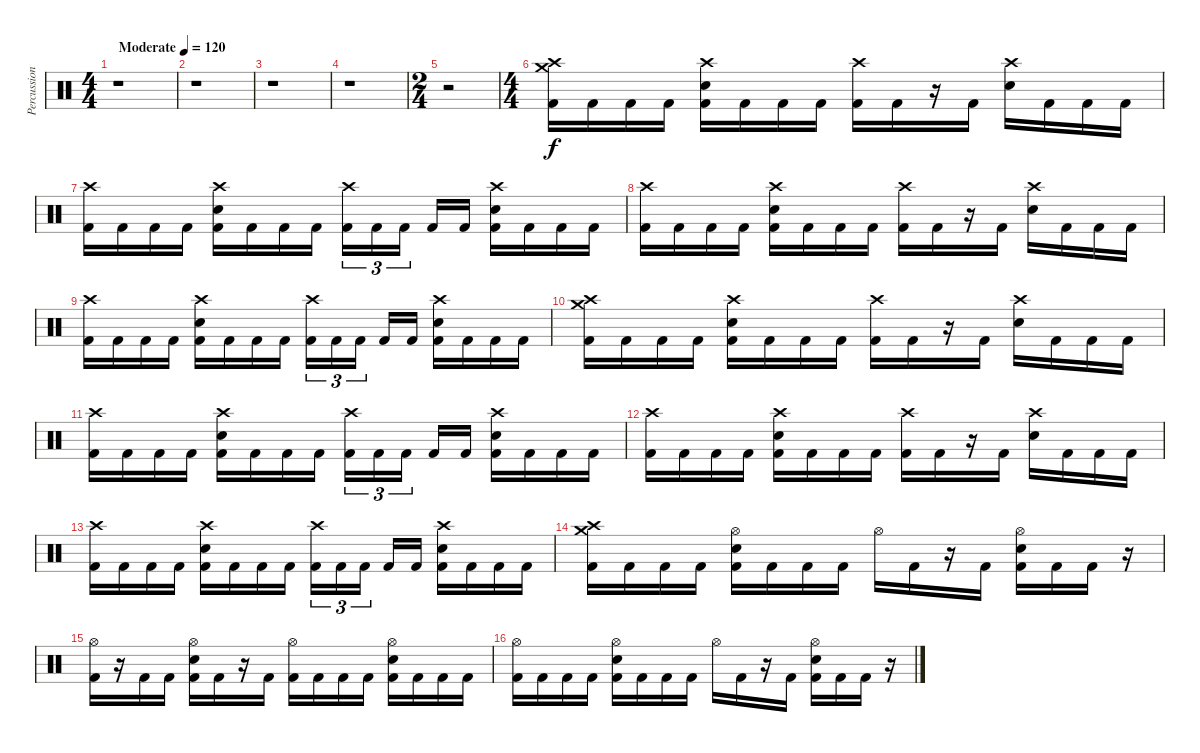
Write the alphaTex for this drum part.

\track ("Percussion" "Percussion") {instrument percussion}
\staff {score}
\articulation defaults
\ts (4 4)
\tempo (120 "Moderate")
\clef neutral
\ks c
r.1{dy f} |
r.1 |
r.1 |
r.1 |
\ts (2 4)
r.2 |
\ts (4 4)
("Crash high (hit)" "Crash medium (hit)" "Kick (hit) 2").16 "Kick (hit) 2".16 "Kick (hit) 2".16 "Kick (hit) 2".16 ("Crash high (hit)" "Electric Snare (hit)" "Kick (hit) 2").16 "Kick (hit) 2".16 "Kick (hit) 2".16 "Kick (hit) 2".16 ("Crash high (hit)" "Kick (hit) 2").16 "Kick (hit) 2".16 r.16 "Kick (hit) 2".16 ("Crash high (hit)" "Electric Snare (hit)").16 "Kick (hit) 2".16 "Kick (hit) 2".16 "Kick (hit) 2".16 |
("Crash high (hit)" "Kick (hit) 2").16 "Kick (hit) 2".16 "Kick (hit) 2".16 "Kick (hit) 2".16 ("Crash high (hit)" "Electric Snare (hit)" "Kick (hit) 2").16 "Kick (hit) 2".16 "Kick (hit) 2".16 "Kick (hit) 2".16 ("Crash high (hit)" "Kick (hit) 2").16{tu (3 2)} "Kick (hit) 2".16{tu (3 2)} "Kick (hit) 2".16{tu (3 2) beam splitsecondary} "Kick (hit) 2".16 "Kick (hit) 2".16 ("Crash high (hit)" "Electric Snare (hit)" "Kick (hit) 2").16 "Kick (hit) 2".16 "Kick (hit) 2".16 "Kick (hit) 2".16 |
("Crash high (hit)" "Kick (hit) 2").16 "Kick (hit) 2".16 "Kick (hit) 2".16 "Kick (hit) 2".16 ("Crash high (hit)" "Electric Snare (hit)" "Kick (hit) 2").16 "Kick (hit) 2".16 "Kick (hit) 2".16 "Kick (hit) 2".16 ("Crash high (hit)" "Kick (hit) 2").16 "Kick (hit) 2".16 r.16 "Kick (hit) 2".16 ("Crash high (hit)" "Electric Snare (hit)").16 "Kick (hit) 2".16 "Kick (hit) 2".16 "Kick (hit) 2".16 |
("Crash high (hit)" "Kick (hit) 2").16 "Kick (hit) 2".16 "Kick (hit) 2".16 "Kick (hit) 2".16 ("Crash high (hit)" "Electric Snare (hit)" "Kick (hit) 2").16 "Kick (hit) 2".16 "Kick (hit) 2".16 "Kick (hit) 2".16 ("Crash high (hit)" "Kick (hit) 2").16{tu (3 2)} "Kick (hit) 2".16{tu (3 2)} "Kick (hit) 2".16{tu (3 2) beam splitsecondary} "Kick (hit) 2".16 "Kick (hit) 2".16 ("Crash high (hit)" "Electric Snare (hit)" "Kick (hit) 2").16 "Kick (hit) 2".16 "Kick (hit) 2".16 "Kick (hit) 2".16 |
("Crash high (hit)" "Crash medium (hit)" "Kick (hit) 2").16 "Kick (hit) 2".16 "Kick (hit) 2".16 "Kick (hit) 2".16 ("Crash high (hit)" "Electric Snare (hit)" "Kick (hit) 2").16 "Kick (hit) 2".16 "Kick (hit) 2".16 "Kick (hit) 2".16 ("Crash high (hit)" "Kick (hit) 2").16 "Kick (hit) 2".16 r.16 "Kick (hit) 2".16 ("Crash high (hit)" "Electric Snare (hit)").16 "Kick (hit) 2".16 "Kick (hit) 2".16 "Kick (hit) 2".16 |
("Crash high (hit)" "Kick (hit) 2").16 "Kick (hit) 2".16 "Kick (hit) 2".16 "Kick (hit) 2".16 ("Crash high (hit)" "Electric Snare (hit)" "Kick (hit) 2").16 "Kick (hit) 2".16 "Kick (hit) 2".16 "Kick (hit) 2".16 ("Crash high (hit)" "Kick (hit) 2").16{tu (3 2)} "Kick (hit) 2".16{tu (3 2)} "Kick (hit) 2".16{tu (3 2) beam splitsecondary} "Kick (hit) 2".16 "Kick (hit) 2".16 ("Crash high (hit)" "Electric Snare (hit)" "Kick (hit) 2").16 "Kick (hit) 2".16 "Kick (hit) 2".16 "Kick (hit) 2".16 |
("Crash high (hit)" "Kick (hit) 2").16 "Kick (hit) 2".16 "Kick (hit) 2".16 "Kick (hit) 2".16 ("Crash high (hit)" "Electric Snare (hit)" "Kick (hit) 2").16 "Kick (hit) 2".16 "Kick (hit) 2".16 "Kick (hit) 2".16 ("Crash high (hit)" "Kick (hit) 2").16 "Kick (hit) 2".16 r.16 "Kick (hit) 2".16 ("Crash high (hit)" "Electric Snare (hit)").16 "Kick (hit) 2".16 "Kick (hit) 2".16 "Kick (hit) 2".16 |
("Crash high (hit)" "Kick (hit) 2").16 "Kick (hit) 2".16 "Kick (hit) 2".16 "Kick (hit) 2".16 ("Crash high (hit)" "Electric Snare (hit)" "Kick (hit) 2").16 "Kick (hit) 2".16 "Kick (hit) 2".16 "Kick (hit) 2".16 ("Crash high (hit)" "Kick (hit) 2").16{tu (3 2)} "Kick (hit) 2".16{tu (3 2)} "Kick (hit) 2".16{tu (3 2) beam splitsecondary} "Kick (hit) 2".16 "Kick (hit) 2".16 ("Crash high (hit)" "Electric Snare (hit)" "Kick (hit) 2").16 "Kick (hit) 2".16 "Kick (hit) 2".16 "Kick (hit) 2".16 |
("Crash high (hit)" "Crash medium (hit)" "Kick (hit) 2").16 "Kick (hit) 2".16 "Kick (hit) 2".16 "Kick (hit) 2".16 ("Hi-Hat (open)" "Electric Snare (hit)" "Kick (hit) 2").16 "Kick (hit) 2".16 "Kick (hit) 2".16 "Kick (hit) 2".16 "Hi-Hat (open)".16 "Kick (hit) 2".16 r.16 "Kick (hit) 2".16 ("Hi-Hat (open)" "Electric Snare (hit)" "Kick (hit) 2").16 "Kick (hit) 2".16 "Kick (hit) 2".16 r.16 |
("Hi-Hat (open)" "Kick (hit) 2").16 r.16 "Kick (hit) 2".16 "Kick (hit) 2".16 ("Hi-Hat (open)" "Electric Snare (hit)" "Kick (hit) 2").16 "Kick (hit) 2".16 r.16 "Kick (hit) 2".16 ("Hi-Hat (open)" "Kick (hit) 2").16 "Kick (hit) 2".16 "Kick (hit) 2".16 "Kick (hit) 2".16 ("Hi-Hat (open)" "Electric Snare (hit)" "Kick (hit) 2").16 "Kick (hit) 2".16 "Kick (hit) 2".16 "Kick (hit) 2".16 |
("Hi-Hat (open)" "Kick (hit) 2").16 "Kick (hit) 2".16 "Kick (hit) 2".16 "Kick (hit) 2".16 ("Hi-Hat (open)" "Electric Snare (hit)" "Kick (hit) 2").16 "Kick (hit) 2".16 "Kick (hit) 2".16 "Kick (hit) 2".16 "Hi-Hat (open)".16 "Kick (hit) 2".16 r.16 "Kick (hit) 2".16 ("Hi-Hat (open)" "Electric Snare (hit)" "Kick (hit) 2").16 "Kick (hit) 2".16 "Kick (hit) 2".16 r.16
